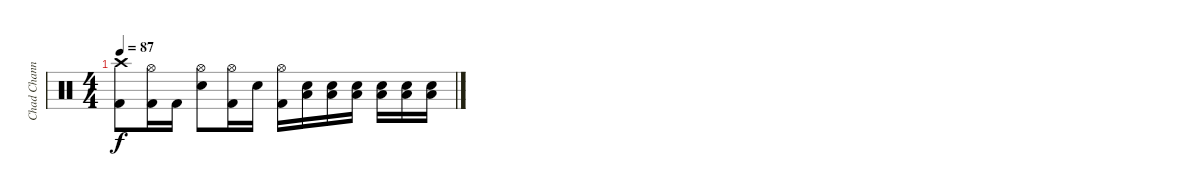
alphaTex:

\track ("Chad Channing" "Chad Chann") {instrument percussion}
\staff {score}
\articulation defaults
\ts (4 4)
\tempo 87
\clef neutral
\ks c
("Crash high (hit)" "Kick (hit) 2").8{dy f} ("Hi-Hat (open)" "Kick (hit) 2").16 "Kick (hit) 2".16 ("Hi-Hat (open)" "Snare (hit) 2").8 ("Hi-Hat (open)" "Kick (hit) 2").16 "Snare (hit) 2".16 ("Hi-Hat (open)" "Kick (hit) 2").16 ("Snare (hit) 2" "Low Tom (hit)").16 ("Snare (hit) 2" "Low Tom (hit)").16 ("Snare (hit) 2" "Low Tom (hit)").16 ("Snare (hit) 2" "Low Tom (hit)").16 ("Snare (hit) 2" "Low Tom (hit)").16 ("Snare (hit) 2" "Low Tom (hit)").16
